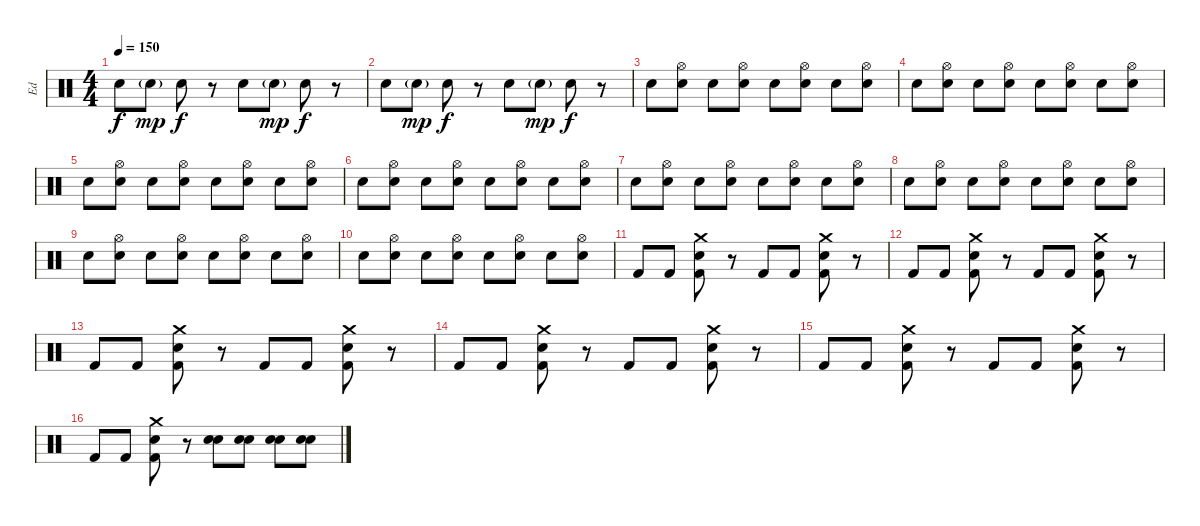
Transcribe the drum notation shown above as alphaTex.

\track ("Ed" "Ed") {instrument percussion}
\staff {score}
\articulation defaults
\ts (4 4)
\tempo 150
\clef neutral
\ks c "Electric Snare (hit)".8{dy f} "Electric Snare (hit)"{g}.8{dy mp} "Electric Snare (hit)".8{dy f}
r.8 "Electric Snare (hit)".8 "Electric Snare (hit)"{g}.8{dy mp} "Electric Snare (hit)".8{dy f} r.8 |
"Electric Snare (hit)".8 "Electric Snare (hit)"{g}.8{dy mp} "Electric Snare (hit)".8{dy f} r.8 "Electric Snare (hit)".8 "Electric Snare (hit)"{g}.8{dy mp} "Electric Snare (hit)".8{dy f} r.8 |
"Snare (hit) 2".8 ("Hi-Hat (open)" "Electric Snare (hit)").8 "Snare (hit) 2".8 ("Hi-Hat (open)" "Electric Snare (hit)").8 "Snare (hit) 2".8 ("Hi-Hat (open)" "Electric Snare (hit)").8 "Snare (hit) 2".8 ("Hi-Hat (open)" "Electric Snare (hit)").8 |
"Snare (hit) 2".8 ("Hi-Hat (open)" "Electric Snare (hit)").8 "Snare (hit) 2".8 ("Hi-Hat (open)" "Electric Snare (hit)").8 "Snare (hit) 2".8 ("Hi-Hat (open)" "Electric Snare (hit)").8 "Snare (hit) 2".8 ("Hi-Hat (open)" "Electric Snare (hit)").8 |
"Snare (hit) 2".8 ("Hi-Hat (open)" "Electric Snare (hit)").8 "Snare (hit) 2".8 ("Hi-Hat (open)" "Electric Snare (hit)").8 "Snare (hit) 2".8 ("Hi-Hat (open)" "Electric Snare (hit)").8 "Snare (hit) 2".8 ("Hi-Hat (open)" "Electric Snare (hit)").8 |
"Snare (hit) 2".8 ("Hi-Hat (open)" "Electric Snare (hit)").8 "Snare (hit) 2".8 ("Hi-Hat (open)" "Electric Snare (hit)").8 "Snare (hit) 2".8 ("Hi-Hat (open)" "Electric Snare (hit)").8 "Snare (hit) 2".8 ("Hi-Hat (open)" "Electric Snare (hit)").8 |
"Snare (hit) 2".8 ("Hi-Hat (open)" "Electric Snare (hit)").8 "Snare (hit) 2".8 ("Hi-Hat (open)" "Electric Snare (hit)").8 "Snare (hit) 2".8 ("Hi-Hat (open)" "Electric Snare (hit)").8 "Snare (hit) 2".8 ("Hi-Hat (open)" "Electric Snare (hit)").8 |
"Snare (hit) 2".8 ("Hi-Hat (open)" "Electric Snare (hit)").8 "Snare (hit) 2".8 ("Hi-Hat (open)" "Electric Snare (hit)").8 "Snare (hit) 2".8 ("Hi-Hat (open)" "Electric Snare (hit)").8 "Snare (hit) 2".8 ("Hi-Hat (open)" "Electric Snare (hit)").8 |
"Snare (hit) 2".8 ("Hi-Hat (open)" "Electric Snare (hit)").8 "Snare (hit) 2".8 ("Hi-Hat (open)" "Electric Snare (hit)").8 "Snare (hit) 2".8 ("Hi-Hat (open)" "Electric Snare (hit)").8 "Snare (hit) 2".8 ("Hi-Hat (open)" "Electric Snare (hit)").8 |
"Snare (hit) 2".8 ("Hi-Hat (open)" "Electric Snare (hit)").8 "Snare (hit) 2".8 ("Hi-Hat (open)" "Electric Snare (hit)").8 "Snare (hit) 2".8 ("Hi-Hat (open)" "Electric Snare (hit)").8 "Snare (hit) 2".8 ("Hi-Hat (open)" "Electric Snare (hit)").8 |
"Kick (hit) 2".8 "Kick (hit) 2".8 ("Crash medium (hit)" "Electric Snare (hit)" "Kick (hit) 2").8 r.8 "Kick (hit) 2".8 "Kick (hit) 2".8 ("Crash medium (hit)" "Electric Snare (hit)" "Kick (hit) 2").8 r.8 |
"Kick (hit) 2".8 "Kick (hit) 2".8 ("Crash medium (hit)" "Electric Snare (hit)" "Kick (hit) 2").8 r.8 "Kick (hit) 2".8 "Kick (hit) 2".8 ("Crash medium (hit)" "Electric Snare (hit)" "Kick (hit) 2").8 r.8 |
"Kick (hit) 2".8 "Kick (hit) 2".8 ("Crash medium (hit)" "Electric Snare (hit)" "Kick (hit) 2").8 r.8 "Kick (hit) 2".8 "Kick (hit) 2".8 ("Crash medium (hit)" "Electric Snare (hit)" "Kick (hit) 2").8 r.8 |
"Kick (hit) 2".8 "Kick (hit) 2".8 ("Crash medium (hit)" "Electric Snare (hit)" "Kick (hit) 2").8 r.8 "Kick (hit) 2".8 "Kick (hit) 2".8 ("Crash medium (hit)" "Electric Snare (hit)" "Kick (hit) 2").8 r.8 |
"Kick (hit) 2".8 "Kick (hit) 2".8 ("Crash medium (hit)" "Electric Snare (hit)" "Kick (hit) 2").8 r.8 "Kick (hit) 2".8 "Kick (hit) 2".8 ("Crash medium (hit)" "Electric Snare (hit)" "Kick (hit) 2").8 r.8 |
"Kick (hit) 2".8 "Kick (hit) 2".8 ("Crash medium (hit)" "Electric Snare (hit)" "Kick (hit) 2").8 r.8 ("Snare (hit) 2" "Electric Snare (hit)").8 ("Snare (hit) 2" "Electric Snare (hit)").8 ("Snare (hit) 2" "Electric Snare (hit)").8 ("Snare (hit) 2" "Electric Snare (hit)").8
